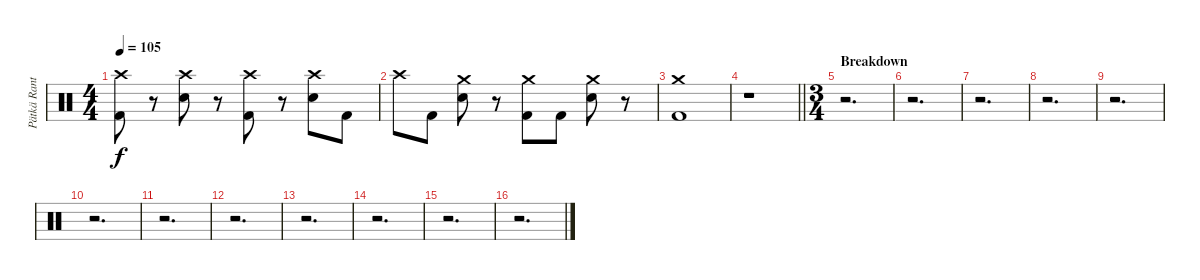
\track ("Pätkä Rantala (Drums)" "Pätkä Rant") {instrument percussion}
\staff {score}
\articulation defaults
\ts (4 4)
\tempo 105
\clef neutral
\ks c
("Crash high (hit)" "Kick (hit) 2").8{dy f} r.8 ("Crash high (hit)" "Snare (hit) 2").8 r.8 ("Crash high (hit)" "Kick (hit) 2").8 r.8 ("Crash high (hit)" "Snare (hit) 2").8 "Kick (hit) 2".8 |
"Crash high (hit)".8 "Kick (hit) 2".8 ("Crash medium (hit)" "Snare (hit) 2").8 r.8 ("Crash medium (hit)" "Kick (hit) 2").8 "Kick (hit) 2".8 ("Crash medium (hit)" "Snare (hit) 2").8 r.8 |
("Crash medium (hit)" "Kick (hit) 2").1 |
\barLineRight lightlight
r.1 |
\ts (3 4)
\section ("" "Breakdown")
r.2{d} |
r.2{d} |
r.2{d} |
r.2{d} |
r.2{d} |
r.2{d} |
r.2{d} |
r.2{d} |
r.2{d} |
r.2{d} |
r.2{d} |
r.2{d}
